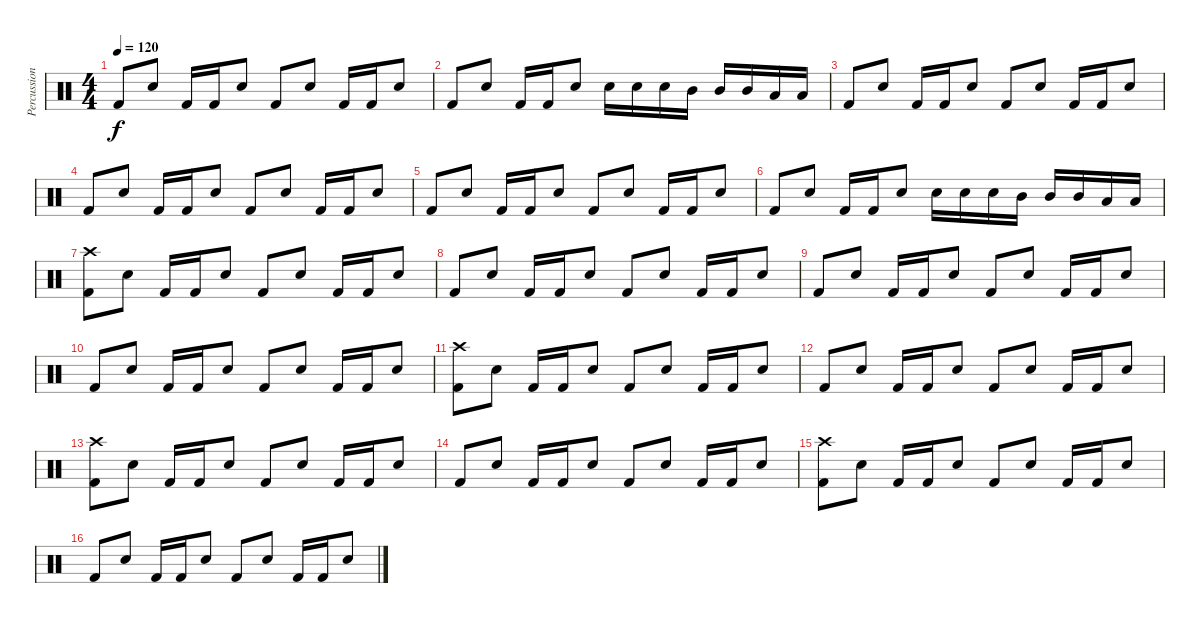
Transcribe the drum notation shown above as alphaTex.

\track ("Percussions" "Percussion") {instrument percussion}
\staff {score}
\articulation defaults
\ts (4 4)
\tempo 120
\clef neutral
\ks c "Kick (hit) 2".8{dy f} "Snare (hit) 2".8 "Kick (hit) 2".16 "Kick (hit) 2".16 "Snare (hit) 2".8 "Kick (hit) 2".8 "Snare (hit) 2".8 "Kick (hit) 2".16 "Kick (hit) 2".16 "Snare (hit) 2".8
|
"Kick (hit) 2".8 "Snare (hit) 2".8 "Kick (hit) 2".16 "Kick (hit) 2".16 "Snare (hit) 2".8 "Snare (hit) 2".16 "Snare (hit) 2".16 "Snare (hit) 2".16 "Mid Tom (hit)".16 "Mid Tom (hit)".16 "Mid Tom (hit)".16 "Low Tom (hit)".16 "Low Tom (hit)".16 |
"Kick (hit) 2".8 "Snare (hit) 2".8 "Kick (hit) 2".16 "Kick (hit) 2".16 "Snare (hit) 2".8 "Kick (hit) 2".8 "Snare (hit) 2".8 "Kick (hit) 2".16 "Kick (hit) 2".16 "Snare (hit) 2".8 |
"Kick (hit) 2".8 "Snare (hit) 2".8 "Kick (hit) 2".16 "Kick (hit) 2".16 "Snare (hit) 2".8 "Kick (hit) 2".8 "Snare (hit) 2".8 "Kick (hit) 2".16 "Kick (hit) 2".16 "Snare (hit) 2".8 |
"Kick (hit) 2".8 "Snare (hit) 2".8 "Kick (hit) 2".16 "Kick (hit) 2".16 "Snare (hit) 2".8 "Kick (hit) 2".8 "Snare (hit) 2".8 "Kick (hit) 2".16 "Kick (hit) 2".16 "Snare (hit) 2".8 |
"Kick (hit) 2".8 "Snare (hit) 2".8 "Kick (hit) 2".16 "Kick (hit) 2".16 "Snare (hit) 2".8 "Snare (hit) 2".16 "Snare (hit) 2".16 "Snare (hit) 2".16 "Mid Tom (hit)".16 "Mid Tom (hit)".16 "Mid Tom (hit)".16 "Low Tom (hit)".16 "Low Tom (hit)".16 |
("Crash high (hit)" "Kick (hit) 2").8 "Snare (hit) 2".8 "Kick (hit) 2".16 "Kick (hit) 2".16 "Snare (hit) 2".8 "Kick (hit) 2".8 "Snare (hit) 2".8 "Kick (hit) 2".16 "Kick (hit) 2".16 "Snare (hit) 2".8 |
"Kick (hit) 2".8 "Snare (hit) 2".8 "Kick (hit) 2".16 "Kick (hit) 2".16 "Snare (hit) 2".8 "Kick (hit) 2".8 "Snare (hit) 2".8 "Kick (hit) 2".16 "Kick (hit) 2".16 "Snare (hit) 2".8 |
"Kick (hit) 2".8 "Snare (hit) 2".8 "Kick (hit) 2".16 "Kick (hit) 2".16 "Snare (hit) 2".8 "Kick (hit) 2".8 "Snare (hit) 2".8 "Kick (hit) 2".16 "Kick (hit) 2".16 "Snare (hit) 2".8 |
"Kick (hit) 2".8 "Snare (hit) 2".8 "Kick (hit) 2".16 "Kick (hit) 2".16 "Snare (hit) 2".8 "Kick (hit) 2".8 "Snare (hit) 2".8 "Kick (hit) 2".16 "Kick (hit) 2".16 "Snare (hit) 2".8 |
("Crash high (hit)" "Kick (hit) 2").8 "Snare (hit) 2".8 "Kick (hit) 2".16 "Kick (hit) 2".16 "Snare (hit) 2".8 "Kick (hit) 2".8 "Snare (hit) 2".8 "Kick (hit) 2".16 "Kick (hit) 2".16 "Snare (hit) 2".8 |
"Kick (hit) 2".8 "Snare (hit) 2".8 "Kick (hit) 2".16 "Kick (hit) 2".16 "Snare (hit) 2".8 "Kick (hit) 2".8 "Snare (hit) 2".8 "Kick (hit) 2".16 "Kick (hit) 2".16 "Snare (hit) 2".8 |
("Crash high (hit)" "Kick (hit) 2").8 "Snare (hit) 2".8 "Kick (hit) 2".16 "Kick (hit) 2".16 "Snare (hit) 2".8 "Kick (hit) 2".8 "Snare (hit) 2".8 "Kick (hit) 2".16 "Kick (hit) 2".16 "Snare (hit) 2".8 |
"Kick (hit) 2".8 "Snare (hit) 2".8 "Kick (hit) 2".16 "Kick (hit) 2".16 "Snare (hit) 2".8 "Kick (hit) 2".8 "Snare (hit) 2".8 "Kick (hit) 2".16 "Kick (hit) 2".16 "Snare (hit) 2".8 |
("Crash high (hit)" "Kick (hit) 2").8 "Snare (hit) 2".8 "Kick (hit) 2".16 "Kick (hit) 2".16 "Snare (hit) 2".8 "Kick (hit) 2".8 "Snare (hit) 2".8 "Kick (hit) 2".16 "Kick (hit) 2".16 "Snare (hit) 2".8 |
"Kick (hit) 2".8 "Snare (hit) 2".8 "Kick (hit) 2".16 "Kick (hit) 2".16 "Snare (hit) 2".8 "Kick (hit) 2".8 "Snare (hit) 2".8 "Kick (hit) 2".16 "Kick (hit) 2".16 "Snare (hit) 2".8
